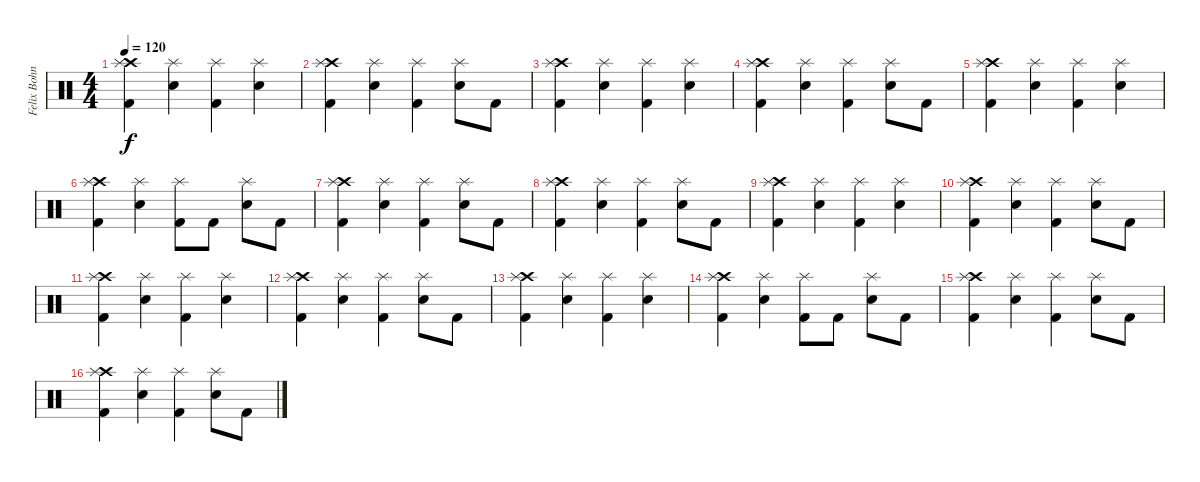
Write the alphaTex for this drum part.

\track ("Felix Bohnke (Drums)" "Felix Bohn") {instrument percussion}
\staff {score}
\articulation defaults
\ts (4 4)
\tempo 120
\clef neutral
\ks c
("Crash high (hit)" "Splash (hit)" "Kick (hit) 2").4{dy f} ("Splash (hit)" "Snare (hit) 2").4 ("Splash (hit)" "Kick (hit) 2").4 ("Splash (hit)" "Snare (hit) 2").4 |
("Crash high (hit)" "Splash (hit)" "Kick (hit) 2").4 ("Splash (hit)" "Snare (hit) 2").4 ("Splash (hit)" "Kick (hit) 2").4 ("Splash (hit)" "Snare (hit) 2").8 "Kick (hit) 2".8 |
("Crash high (hit)" "Splash (hit)" "Kick (hit) 2").4 ("Splash (hit)" "Snare (hit) 2").4 ("Splash (hit)" "Kick (hit) 2").4 ("Splash (hit)" "Snare (hit) 2").4 |
("Crash high (hit)" "Splash (hit)" "Kick (hit) 2").4 ("Splash (hit)" "Snare (hit) 2").4 ("Splash (hit)" "Kick (hit) 2").4 ("Splash (hit)" "Snare (hit) 2").8 "Kick (hit) 2".8 |
("Crash high (hit)" "Splash (hit)" "Kick (hit) 2").4 ("Splash (hit)" "Snare (hit) 2").4 ("Splash (hit)" "Kick (hit) 2").4 ("Splash (hit)" "Snare (hit) 2").4 |
("Crash high (hit)" "Splash (hit)" "Kick (hit) 2").4 ("Splash (hit)" "Snare (hit) 2").4 ("Splash (hit)" "Kick (hit) 2").8 "Kick (hit) 2".8 ("Splash (hit)" "Snare (hit) 2").8 "Kick (hit) 2".8 |
("Crash high (hit)" "Splash (hit)" "Kick (hit) 2").4 ("Splash (hit)" "Snare (hit) 2").4 ("Splash (hit)" "Kick (hit) 2").4 ("Splash (hit)" "Snare (hit) 2").8 "Kick (hit) 2".8 |
("Crash high (hit)" "Splash (hit)" "Kick (hit) 2").4 ("Splash (hit)" "Snare (hit) 2").4 ("Splash (hit)" "Kick (hit) 2").4 ("Splash (hit)" "Snare (hit) 2").8 "Kick (hit) 2".8 |
("Crash high (hit)" "Splash (hit)" "Kick (hit) 2").4 ("Splash (hit)" "Snare (hit) 2").4 ("Splash (hit)" "Kick (hit) 2").4 ("Splash (hit)" "Snare (hit) 2").4 |
("Crash high (hit)" "Splash (hit)" "Kick (hit) 2").4 ("Splash (hit)" "Snare (hit) 2").4 ("Splash (hit)" "Kick (hit) 2").4 ("Splash (hit)" "Snare (hit) 2").8 "Kick (hit) 2".8 |
("Crash high (hit)" "Splash (hit)" "Kick (hit) 2").4 ("Splash (hit)" "Snare (hit) 2").4 ("Splash (hit)" "Kick (hit) 2").4 ("Splash (hit)" "Snare (hit) 2").4 |
("Crash high (hit)" "Splash (hit)" "Kick (hit) 2").4 ("Splash (hit)" "Snare (hit) 2").4 ("Splash (hit)" "Kick (hit) 2").4 ("Splash (hit)" "Snare (hit) 2").8 "Kick (hit) 2".8 |
("Crash high (hit)" "Splash (hit)" "Kick (hit) 2").4 ("Splash (hit)" "Snare (hit) 2").4 ("Splash (hit)" "Kick (hit) 2").4 ("Splash (hit)" "Snare (hit) 2").4 |
("Crash high (hit)" "Splash (hit)" "Kick (hit) 2").4 ("Splash (hit)" "Snare (hit) 2").4 ("Splash (hit)" "Kick (hit) 2").8 "Kick (hit) 2".8 ("Splash (hit)" "Snare (hit) 2").8 "Kick (hit) 2".8 |
("Crash high (hit)" "Splash (hit)" "Kick (hit) 2").4 ("Splash (hit)" "Snare (hit) 2").4 ("Splash (hit)" "Kick (hit) 2").4 ("Splash (hit)" "Snare (hit) 2").8 "Kick (hit) 2".8 |
("Crash high (hit)" "Splash (hit)" "Kick (hit) 2").4 ("Splash (hit)" "Snare (hit) 2").4 ("Splash (hit)" "Kick (hit) 2").4 ("Splash (hit)" "Snare (hit) 2").8 "Kick (hit) 2".8
